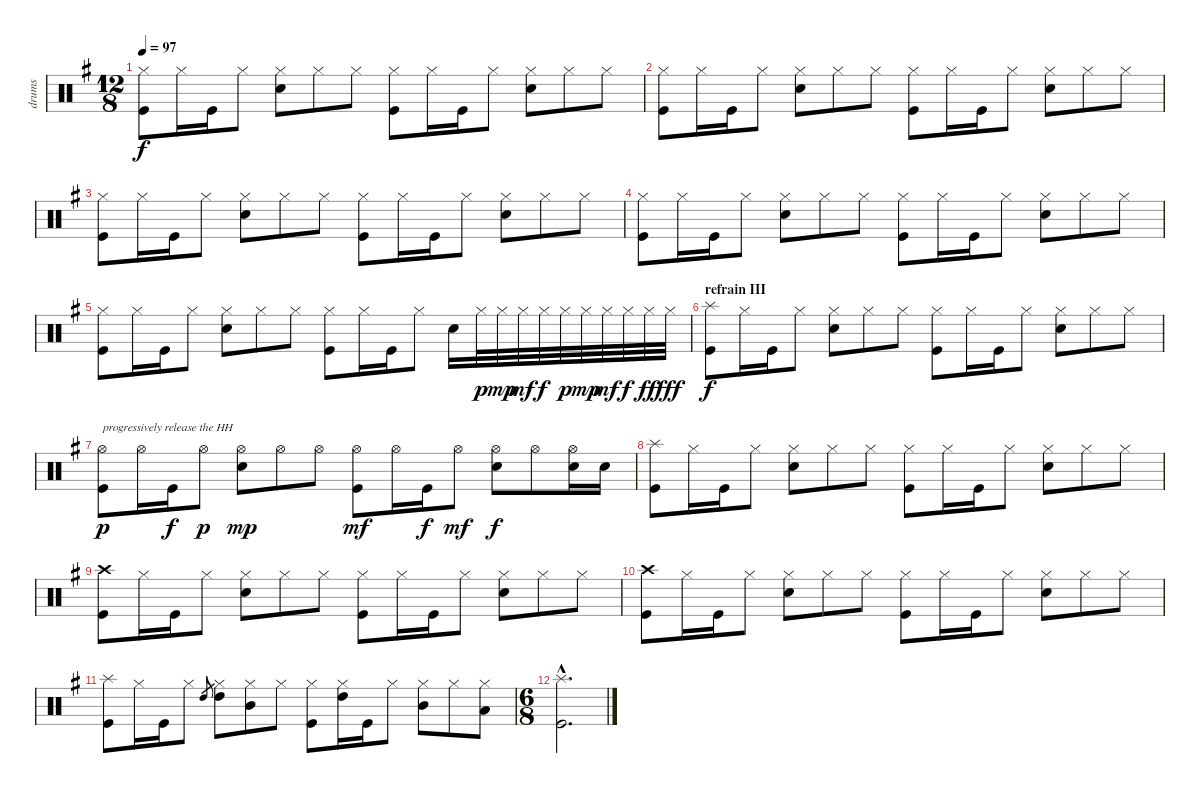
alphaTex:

\track ("drums" "drums") {instrument percussion}
\staff {score}
\articulation defaults
\ts (12 8)
\tempo 97
\clef neutral
\ks g
("Hi-Hat (closed)" "Kick (hit)").8{dy f} "Hi-Hat (closed)".16 "Kick (hit)".16 "Hi-Hat (closed)".8 ("Hi-Hat (closed)" "Electric Snare (hit)").8 "Hi-Hat (closed)".8 "Hi-Hat (closed)".8 ("Hi-Hat (closed)" "Kick (hit)").8 "Hi-Hat (closed)".16 "Kick (hit)".16 "Hi-Hat (closed)".8 ("Hi-Hat (closed)" "Electric Snare (hit)").8 "Hi-Hat (closed)".8 "Hi-Hat (closed)".8 |
("Hi-Hat (closed)" "Kick (hit)").8 "Hi-Hat (closed)".16 "Kick (hit)".16 "Hi-Hat (closed)".8 ("Hi-Hat (closed)" "Electric Snare (hit)").8 "Hi-Hat (closed)".8 "Hi-Hat (closed)".8 ("Hi-Hat (closed)" "Kick (hit)").8 "Hi-Hat (closed)".16 "Kick (hit)".16 "Hi-Hat (closed)".8 ("Hi-Hat (closed)" "Electric Snare (hit)").8 "Hi-Hat (closed)".8 "Hi-Hat (closed)".8 |
("Hi-Hat (closed)" "Kick (hit)").8 "Hi-Hat (closed)".16 "Kick (hit)".16 "Hi-Hat (closed)".8 ("Hi-Hat (closed)" "Electric Snare (hit)").8 "Hi-Hat (closed)".8 "Hi-Hat (closed)".8 ("Hi-Hat (closed)" "Kick (hit)").8 "Hi-Hat (closed)".16 "Kick (hit)".16 "Hi-Hat (closed)".8 ("Hi-Hat (closed)" "Electric Snare (hit)").8 "Hi-Hat (closed)".8 "Hi-Hat (closed)".8 |
("Hi-Hat (closed)" "Kick (hit)").8 "Hi-Hat (closed)".16 "Kick (hit)".16 "Hi-Hat (closed)".8 ("Hi-Hat (closed)" "Electric Snare (hit)").8 "Hi-Hat (closed)".8 "Hi-Hat (closed)".8 ("Hi-Hat (closed)" "Kick (hit)").8 "Hi-Hat (closed)".16 "Kick (hit)".16 "Hi-Hat (closed)".8 ("Hi-Hat (closed)" "Electric Snare (hit)").8 "Hi-Hat (closed)".8 "Hi-Hat (closed)".8 |
("Hi-Hat (closed)" "Kick (hit)").8 "Hi-Hat (closed)".16 "Kick (hit)".16 "Hi-Hat (closed)".8 ("Hi-Hat (closed)" "Electric Snare (hit)").8 "Hi-Hat (closed)".8 "Hi-Hat (closed)".8 ("Hi-Hat (closed)" "Kick (hit)").8 "Hi-Hat (closed)".16 "Kick (hit)".16 "Hi-Hat (closed)".8 "Electric Snare (hit)".16 "Hi-Hat (closed)".32{dy p} "Hi-Hat (closed)".32{dy mp} "Hi-Hat (closed)".32{dy mf} "Hi-Hat (closed)".32{dy f} "Hi-Hat (closed)".32{dy p} "Hi-Hat (closed)".32{dy mp} "Hi-Hat (closed)".32{dy mf} "Hi-Hat (closed)".32{dy f} "Hi-Hat (closed)".32{dy ff} "Hi-Hat (closed)".32{dy fff} |
\section ("" "refrain III")
("Splash (hit)" "Kick (hit)").8{dy f} "Hi-Hat (closed)".16 "Kick (hit)".16 "Hi-Hat (closed)".8 ("Hi-Hat (closed)" "Electric Snare (hit)").8 "Hi-Hat (closed)".8 "Hi-Hat (closed)".8 ("Hi-Hat (closed)" "Kick (hit)").8 "Hi-Hat (closed)".16 "Kick (hit)".16 "Hi-Hat (closed)".8 ("Hi-Hat (closed)" "Electric Snare (hit)").8 "Hi-Hat (closed)".8 "Hi-Hat (closed)".8 |
("Hi-Hat (open)" "Kick (hit)").8{txt "progressively release the HH" dy p} "Hi-Hat (open)".16 "Kick (hit)".16{dy f} "Hi-Hat (open)".8{dy p} ("Hi-Hat (open)" "Electric Snare (hit)").8{dy mp} "Hi-Hat (open)".8 "Hi-Hat (open)".8 ("Hi-Hat (open)" "Kick (hit)").8{dy mf} "Hi-Hat (open)".16 "Kick (hit)".16{dy f} "Hi-Hat (open)".8{dy mf} ("Hi-Hat (open)" "Electric Snare (hit)").8{dy f} "Hi-Hat (open)".8 ("Hi-Hat (open)" "Electric Snare (hit)").16 "Electric Snare (hit)".16 |
("Splash (hit)" "Kick (hit)").8 "Hi-Hat (closed)".16 "Kick (hit)".16 "Hi-Hat (closed)".8 ("Hi-Hat (closed)" "Electric Snare (hit)").8 "Hi-Hat (closed)".8 "Hi-Hat (closed)".8 ("Hi-Hat (closed)" "Kick (hit)").8 "Hi-Hat (closed)".16 "Kick (hit)".16 "Hi-Hat (closed)".8 ("Hi-Hat (closed)" "Electric Snare (hit)").8 "Hi-Hat (closed)".8 "Hi-Hat (closed)".8 |
("Crash high (hit)" "Kick (hit)").8 "Hi-Hat (closed)".16 "Kick (hit)".16 "Hi-Hat (closed)".8 ("Hi-Hat (closed)" "Electric Snare (hit)").8 "Hi-Hat (closed)".8 "Hi-Hat (closed)".8 ("Hi-Hat (closed)" "Kick (hit)").8 "Hi-Hat (closed)".16 "Kick (hit)".16 "Hi-Hat (closed)".8 ("Hi-Hat (closed)" "Electric Snare (hit)").8 "Hi-Hat (closed)".8 "Hi-Hat (closed)".8 |
("Crash high (hit)" "Kick (hit)").8 "Hi-Hat (closed)".16 "Kick (hit)".16 "Hi-Hat (closed)".8 ("Hi-Hat (closed)" "Electric Snare (hit)").8 "Hi-Hat (closed)".8 "Hi-Hat (closed)".8 ("Hi-Hat (closed)" "Kick (hit)").8 "Hi-Hat (closed)".16 "Kick (hit)".16 "Hi-Hat (closed)".8 ("Hi-Hat (closed)" "Electric Snare (hit)").8 "Hi-Hat (closed)".8 "Hi-Hat (closed)".8 |
("Splash (hit)" "Kick (hit)").8 "Hi-Hat (closed)".16 "Kick (hit)".16 "Hi-Hat (closed)".8 "High Tom (hit)".8{gr} ("Hi-Hat (closed)" "High Tom (hit)").8 ("Hi-Hat (closed)" "Mid Tom (hit)").8 "Hi-Hat (closed)".8 ("Hi-Hat (closed)" "Kick (hit)").8 ("Hi-Hat (closed)" "High Tom (hit)").16 "Kick (hit)".16 "Hi-Hat (closed)".8 ("Hi-Hat (closed)" "Mid Tom (hit)").8 "Hi-Hat (closed)".8 ("Hi-Hat (closed)" "Low Tom (hit)").8 |
\ts (6 8)
("Splash (hit)"{hac} "Kick (hit)"{hac}).2{d}
